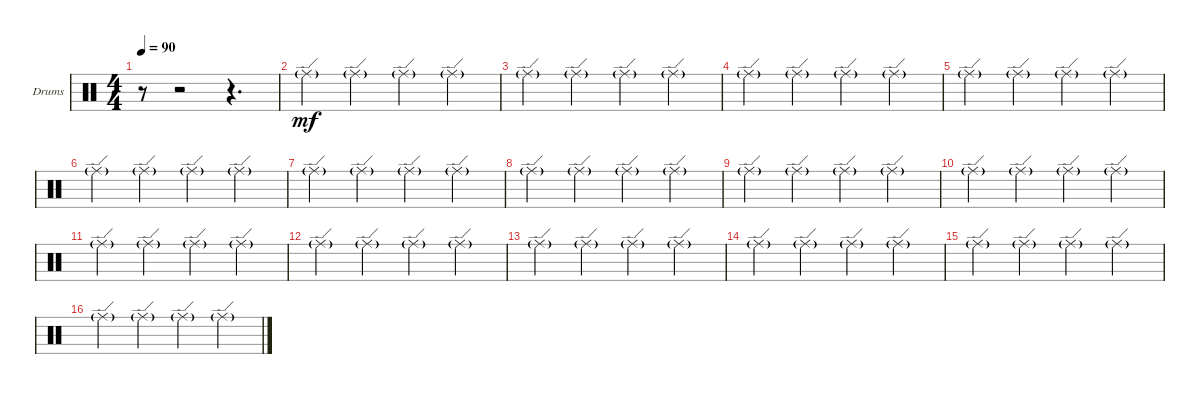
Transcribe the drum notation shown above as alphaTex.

\defaultSystemsLayout 4
\bracketExtendMode groupsimilarinstruments
\firstSystemTrackNameOrientation horizontal
\otherSystemsTrackNameOrientation horizontal
\track ("Percucion" "Drums") {instrument percussion}
\staff {score}
\articulation defaults
\ts (4 4)
\tempo 90
\clef neutral
\scale
0.474178
\ks c
r.8{dy mf} r.2 r.4{d} |
\scale
0.262911 "Ride (edge)"{g}.4 "Ride (edge)"{g}.4 "Ride (edge)"{g}.4 "Ride (edge)"{g}.4 |
\scale
0.262911 "Ride (edge)"{g}.4 "Ride (edge)"{g}.4 "Ride (edge)"{g}.4 "Ride (edge)"{g}.4 |
\scale
0.333333 "Ride (edge)"{g}.4 "Ride (edge)"{g}.4 "Ride (edge)"{g}.4 "Ride (edge)"{g}.4 |
\scale
0.333333 "Ride (edge)"{g}.4 "Ride (edge)"{g}.4 "Ride (edge)"{g}.4 "Ride (edge)"{g}.4 |
\scale
0.333333 "Ride (edge)"{g}.4 "Ride (edge)"{g}.4 "Ride (edge)"{g}.4 "Ride (edge)"{g}.4 |
\scale
0.333333 "Ride (edge)"{g}.4 "Ride (edge)"{g}.4 "Ride (edge)"{g}.4 "Ride (edge)"{g}.4 |
\scale
0.333333 "Ride (edge)"{g}.4 "Ride (edge)"{g}.4 "Ride (edge)"{g}.4 "Ride (edge)"{g}.4 |
\scale
0.333333 "Ride (edge)"{g}.4 "Ride (edge)"{g}.4 "Ride (edge)"{g}.4 "Ride (edge)"{g}.4 |
\scale
0.333333 "Ride (edge)"{g}.4 "Ride (edge)"{g}.4 "Ride (edge)"{g}.4 "Ride (edge)"{g}.4 |
\scale
0.333333 "Ride (edge)"{g}.4 "Ride (edge)"{g}.4 "Ride (edge)"{g}.4 "Ride (edge)"{g}.4 |
\scale
0.333333 "Ride (edge)"{g}.4 "Ride (edge)"{g}.4 "Ride (edge)"{g}.4 "Ride (edge)"{g}.4 |
\scale
0.333333 "Ride (edge)"{g}.4 "Ride (edge)"{g}.4 "Ride (edge)"{g}.4 "Ride (edge)"{g}.4 |
\scale
0.333333 "Ride (edge)"{g}.4 "Ride (edge)"{g}.4 "Ride (edge)"{g}.4 "Ride (edge)"{g}.4 |
\scale
0.333333 "Ride (edge)"{g}.4 "Ride (edge)"{g}.4 "Ride (edge)"{g}.4 "Ride (edge)"{g}.4 |
\scale
0.333333 "Ride (edge)"{g}.4 "Ride (edge)"{g}.4 "Ride (edge)"{g}.4 "Ride (edge)"{g}.4
